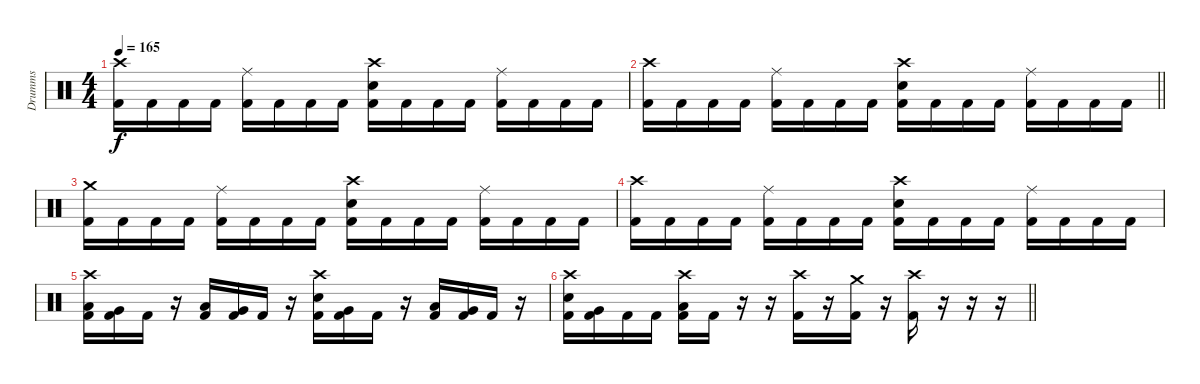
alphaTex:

\track ("Drumms" "Drumms") {instrument percussion}
\staff {score}
\articulation defaults
\ts (4 4)
\tempo 165
\clef neutral
\ks c
("Crash high (hit)" "Kick (hit) 2").16{dy f} "Kick (hit) 2".16 "Kick (hit) 2".16 "Kick (hit) 2".16 ("Ride (middle)" "Kick (hit) 2").16 "Kick (hit) 2".16 "Kick (hit) 2".16 "Kick (hit) 2".16 ("Crash high (hit)" "Snare (hit) 2" "Kick (hit) 2").16 "Kick (hit) 2".16 "Kick (hit) 2".16 "Kick (hit) 2".16 ("Ride (middle)" "Kick (hit) 2").16 "Kick (hit) 2".16 "Kick (hit) 2".16 "Kick (hit) 2".16 |
\barLineRight lightlight
("Crash high (hit)" "Kick (hit) 2").16 "Kick (hit) 2".16 "Kick (hit) 2".16 "Kick (hit) 2".16 ("Ride (middle)" "Kick (hit) 2").16 "Kick (hit) 2".16 "Kick (hit) 2".16 "Kick (hit) 2".16 ("Crash high (hit)" "Snare (hit) 2" "Kick (hit) 2").16 "Kick (hit) 2".16 "Kick (hit) 2".16 "Kick (hit) 2".16 ("Ride (middle)" "Kick (hit) 2").16 "Kick (hit) 2".16 "Kick (hit) 2".16 "Kick (hit) 2".16 |
("Crash medium (hit)" "Kick (hit) 2").16 "Kick (hit) 2".16 "Kick (hit) 2".16 "Kick (hit) 2".16 ("Ride (middle)" "Kick (hit) 2").16 "Kick (hit) 2".16 "Kick (hit) 2".16 "Kick (hit) 2".16 ("Crash high (hit)" "Snare (hit) 2" "Kick (hit) 2").16 "Kick (hit) 2".16 "Kick (hit) 2".16 "Kick (hit) 2".16 ("Ride (middle)" "Kick (hit) 2").16 "Kick (hit) 2".16 "Kick (hit) 2".16 "Kick (hit) 2".16 |
("Crash high (hit)" "Kick (hit) 2").16 "Kick (hit) 2".16 "Kick (hit) 2".16 "Kick (hit) 2".16 ("Ride (middle)" "Kick (hit) 2").16 "Kick (hit) 2".16 "Kick (hit) 2".16 "Kick (hit) 2".16 ("Crash high (hit)" "Snare (hit) 2" "Kick (hit) 2").16 "Kick (hit) 2".16 "Kick (hit) 2".16 "Kick (hit) 2".16 ("Ride (middle)" "Kick (hit) 2").16 "Kick (hit) 2".16 "Kick (hit) 2".16 "Kick (hit) 2".16 |
("Crash high (hit)" "Low Tom (hit)" "Kick (hit) 2").16 ("Very Low Tom (hit)" "Kick (hit) 2").16 "Kick (hit) 2".16 r.16 ("Low Tom (hit)" "Kick (hit) 2").16 ("Very Low Tom (hit)" "Kick (hit) 2").16 "Kick (hit) 2".16 r.16 ("Crash high (hit)" "Snare (hit) 2" "Kick (hit) 2").16 ("Very Low Tom (hit)" "Kick (hit) 2").16 "Kick (hit) 2".16 r.16 ("Low Tom (hit)" "Kick (hit) 2").16 ("Very Low Tom (hit)" "Kick (hit) 2").16 "Kick (hit) 2".16 r.16 |
\barLineRight lightlight
("Crash high (hit)" "Snare (hit) 2" "Kick (hit) 2").16 ("Very Low Tom (hit)" "Kick (hit) 2").16 "Kick (hit) 2".16 "Kick (hit) 2".16 ("Crash high (hit)" "Low Tom (hit)" "Kick (hit) 2").16 "Kick (hit) 2".16 r.16 r.16 ("Crash high (hit)" "Kick (hit) 2").16 r.16 ("Crash medium (hit)" "Kick (hit) 2").16 r.16 ("Crash high (hit)" "Kick (hit) 2").16 r.16 r.16 r.16
